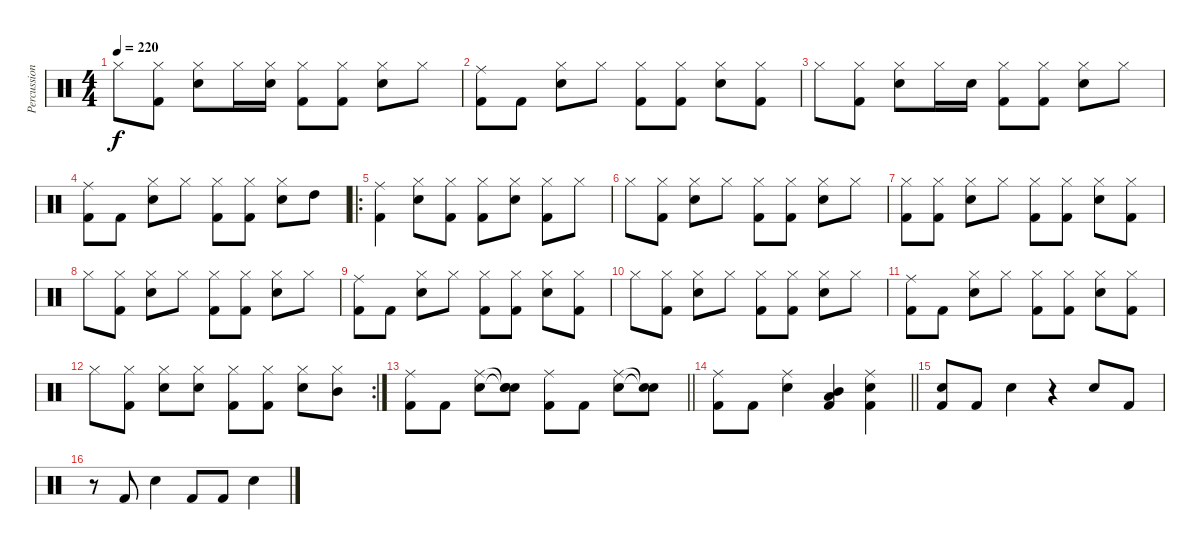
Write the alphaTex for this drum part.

\track ("Percussion" "Percussion") {instrument percussion}
\staff {score}
\articulation defaults
\ts (4 4)
\tempo 220
\clef neutral
\ks c "Hi-Hat (closed)".8{dy f}
("Hi-Hat (closed)" "Kick (hit) 2").8 ("Hi-Hat (closed)" "Electric Snare (hit)").8 "Hi-Hat (closed)".16 ("Hi-Hat (closed)" "Electric Snare (hit)").16 ("Hi-Hat (closed)" "Kick (hit) 2").8 ("Hi-Hat (closed)" "Kick (hit) 2").8 ("Hi-Hat (closed)" "Electric Snare (hit)").8 "Hi-Hat (closed)".8 |
("Ride (middle)" "Kick (hit) 2").8 "Kick (hit) 2".8 ("Hi-Hat (closed)" "Electric Snare (hit)").8 "Hi-Hat (closed)".8 ("Hi-Hat (closed)" "Kick (hit) 2").8 ("Hi-Hat (closed)" "Kick (hit) 2").8 ("Hi-Hat (closed)" "Electric Snare (hit)").8 ("Hi-Hat (closed)" "Kick (hit) 2").8 |
"Hi-Hat (closed)".8 ("Hi-Hat (closed)" "Kick (hit) 2").8 ("Hi-Hat (closed)" "Electric Snare (hit)").8 "Hi-Hat (closed)".16 "Electric Snare (hit)".16 ("Hi-Hat (closed)" "Kick (hit) 2").8 ("Hi-Hat (closed)" "Kick (hit) 2").8 ("Hi-Hat (closed)" "Electric Snare (hit)").8 "Hi-Hat (closed)".8 |
("Ride (middle)" "Kick (hit) 2").8 "Kick (hit) 2".8 ("Hi-Hat (closed)" "Electric Snare (hit)").8 "Hi-Hat (closed)".8 ("Hi-Hat (closed)" "Kick (hit) 2").8 ("Hi-Hat (closed)" "Kick (hit) 2").8 ("Hi-Hat (closed)" "Electric Snare (hit)").8 "High Tom (hit)".8 |
\ro
("Ride (middle)" "Kick (hit) 2").4 ("Hi-Hat (closed)" "Electric Snare (hit)").8 ("Hi-Hat (closed)" "Kick (hit) 2").8 ("Hi-Hat (closed)" "Kick (hit) 2").8 ("Hi-Hat (closed)" "Electric Snare (hit)").8 ("Hi-Hat (closed)" "Kick (hit) 2").8 "Hi-Hat (closed)".8 |
"Hi-Hat (closed)".8 ("Hi-Hat (closed)" "Kick (hit) 2").8 ("Hi-Hat (closed)" "Electric Snare (hit)").8 "Hi-Hat (closed)".8 ("Hi-Hat (closed)" "Kick (hit) 2").8 ("Hi-Hat (closed)" "Kick (hit) 2").8 ("Hi-Hat (closed)" "Electric Snare (hit)").8 "Hi-Hat (closed)".8 |
("Hi-Hat (closed)" "Kick (hit) 2").8 ("Hi-Hat (closed)" "Kick (hit) 2").8 ("Hi-Hat (closed)" "Electric Snare (hit)").8 "Hi-Hat (closed)".8 ("Hi-Hat (closed)" "Kick (hit) 2").8 ("Hi-Hat (closed)" "Kick (hit) 2").8 ("Hi-Hat (closed)" "Electric Snare (hit)").8 ("Hi-Hat (closed)" "Kick (hit) 2").8 |
"Hi-Hat (closed)".8 ("Hi-Hat (closed)" "Kick (hit) 2").8 ("Hi-Hat (closed)" "Electric Snare (hit)").8 "Hi-Hat (closed)".8 ("Hi-Hat (closed)" "Kick (hit) 2").8 ("Hi-Hat (closed)" "Kick (hit) 2").8 ("Hi-Hat (closed)" "Electric Snare (hit)").8 "Hi-Hat (closed)".8 |
("Ride (middle)" "Kick (hit) 2").8 "Kick (hit) 2".8 ("Hi-Hat (closed)" "Electric Snare (hit)").8 "Hi-Hat (closed)".8 ("Hi-Hat (closed)" "Kick (hit) 2").8 ("Hi-Hat (closed)" "Kick (hit) 2").8 ("Hi-Hat (closed)" "Electric Snare (hit)").8 ("Hi-Hat (closed)" "Kick (hit) 2").8 |
"Hi-Hat (closed)".8 ("Hi-Hat (closed)" "Kick (hit) 2").8 ("Hi-Hat (closed)" "Electric Snare (hit)").8 "Hi-Hat (closed)".8 ("Hi-Hat (closed)" "Kick (hit) 2").8 ("Hi-Hat (closed)" "Kick (hit) 2").8 ("Hi-Hat (closed)" "Electric Snare (hit)").8 "Hi-Hat (closed)".8 |
("Ride (middle)" "Kick (hit) 2").8 "Kick (hit) 2".8 ("Hi-Hat (closed)" "Electric Snare (hit)").8 "Hi-Hat (closed)".8 ("Hi-Hat (closed)" "Kick (hit) 2").8 ("Hi-Hat (closed)" "Kick (hit) 2").8 ("Hi-Hat (closed)" "Electric Snare (hit)").8 ("Hi-Hat (closed)" "Kick (hit) 2").8 |
\rc 2 "Hi-Hat (closed)".8
("Hi-Hat (closed)" "Kick (hit) 2").8 ("Hi-Hat (closed)" "Electric Snare (hit)").8 ("Hi-Hat (closed)" "Electric Snare (hit)").8 ("Hi-Hat (closed)" "Kick (hit) 2").8 ("Hi-Hat (closed)" "Kick (hit) 2").8 ("Hi-Hat (closed)" "Electric Snare (hit)").8 ("Hi-Hat (closed)" "Mid Tom (hit)").8 |
\barLineRight lightlight
("Ride (middle)" "Kick (hit) 2").8 "Kick (hit) 2".8 ("Ride (middle)" "Electric Snare (hit)").8 ("Snare (hit)"{t} "Snare (hit)"{t} "Snare (hit)").8 ("Ride (middle)" "Kick (hit) 2").8 "Kick (hit) 2".8 ("Ride (middle)" "Electric Snare (hit)").8 ("Snare (hit)"{t} "Snare (hit)"{t}).8 |
\barLineRight lightlight
("Ride (middle)" "Kick (hit) 2").8 "Kick (hit) 2".8 ("Ride (middle)" "Electric Snare (hit)").4 ("Mid Tom (hit)" "Low Tom (hit)" "Kick (hit) 2").4 ("Ride (middle)" "Electric Snare (hit)" "Kick (hit) 2").4 |
("Electric Snare (hit)" "Kick (hit) 2").8 "Kick (hit) 2".8 "Electric Snare (hit)".4 r.4 "Electric Snare (hit)".8 "Kick (hit) 2".8 |
r.8 "Kick (hit) 2".8 "Electric Snare (hit)".4 "Kick (hit) 2".8 "Kick (hit) 2".8 "Electric Snare (hit)".4
